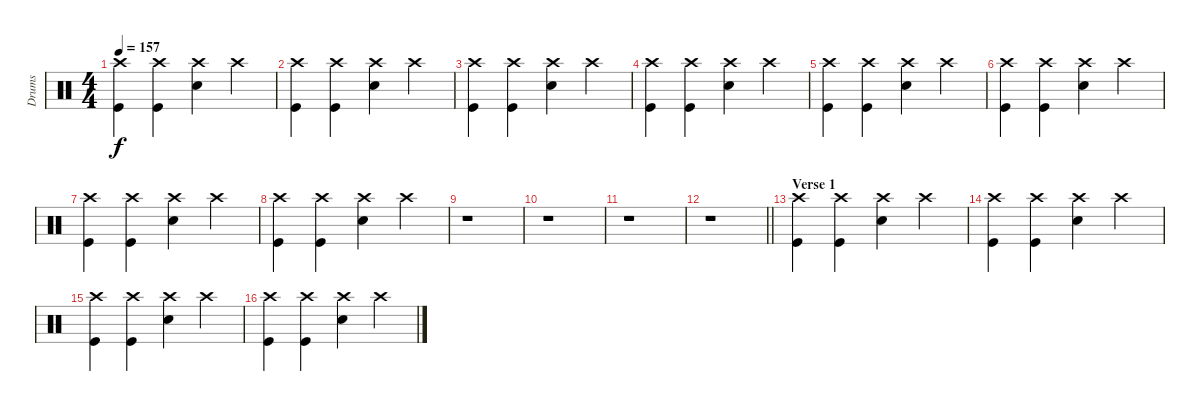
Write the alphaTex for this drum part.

\track ("Drums" "Drums") {instrument percussion}
\staff {score}
\articulation defaults
\ts (4 4)
\tempo 157
\clef neutral
\ks c
("Crash high (hit)" "Kick (hit)").4{dy f} ("Crash high (hit)" "Kick (hit)").4 ("Crash high (hit)" "Snare (hit) 2").4 "Crash high (hit)".4 |
("Crash high (hit)" "Kick (hit)").4 ("Crash high (hit)" "Kick (hit)").4 ("Crash high (hit)" "Snare (hit) 2").4 "Crash high (hit)".4 |
("Crash high (hit)" "Kick (hit)").4 ("Crash high (hit)" "Kick (hit)").4 ("Crash high (hit)" "Snare (hit) 2").4 "Crash high (hit)".4 |
("Crash high (hit)" "Kick (hit)").4 ("Crash high (hit)" "Kick (hit)").4 ("Crash high (hit)" "Snare (hit) 2").4 "Crash high (hit)".4 |
("Crash high (hit)" "Kick (hit)").4 ("Crash high (hit)" "Kick (hit)").4 ("Crash high (hit)" "Snare (hit) 2").4 "Crash high (hit)".4 |
("Crash high (hit)" "Kick (hit)").4 ("Crash high (hit)" "Kick (hit)").4 ("Crash high (hit)" "Snare (hit) 2").4 "Crash high (hit)".4 |
("Crash high (hit)" "Kick (hit)").4 ("Crash high (hit)" "Kick (hit)").4 ("Crash high (hit)" "Snare (hit) 2").4 "Crash high (hit)".4 |
("Crash high (hit)" "Kick (hit)").4 ("Crash high (hit)" "Kick (hit)").4 ("Crash high (hit)" "Snare (hit) 2").4 "Crash high (hit)".4 |
r.1 |
r.1 |
r.1 |
\barLineRight lightlight
r.1 |
\section ("" "Verse 1")
("Crash high (hit)" "Kick (hit)").4 ("Crash high (hit)" "Kick (hit)").4 ("Crash high (hit)" "Snare (hit) 2").4 "Crash high (hit)".4 |
("Crash high (hit)" "Kick (hit)").4 ("Crash high (hit)" "Kick (hit)").4 ("Crash high (hit)" "Snare (hit) 2").4 "Crash high (hit)".4 |
("Crash high (hit)" "Kick (hit)").4 ("Crash high (hit)" "Kick (hit)").4 ("Crash high (hit)" "Snare (hit) 2").4 "Crash high (hit)".4 |
("Crash high (hit)" "Kick (hit)").4 ("Crash high (hit)" "Kick (hit)").4 ("Crash high (hit)" "Snare (hit) 2").4 "Crash high (hit)".4
